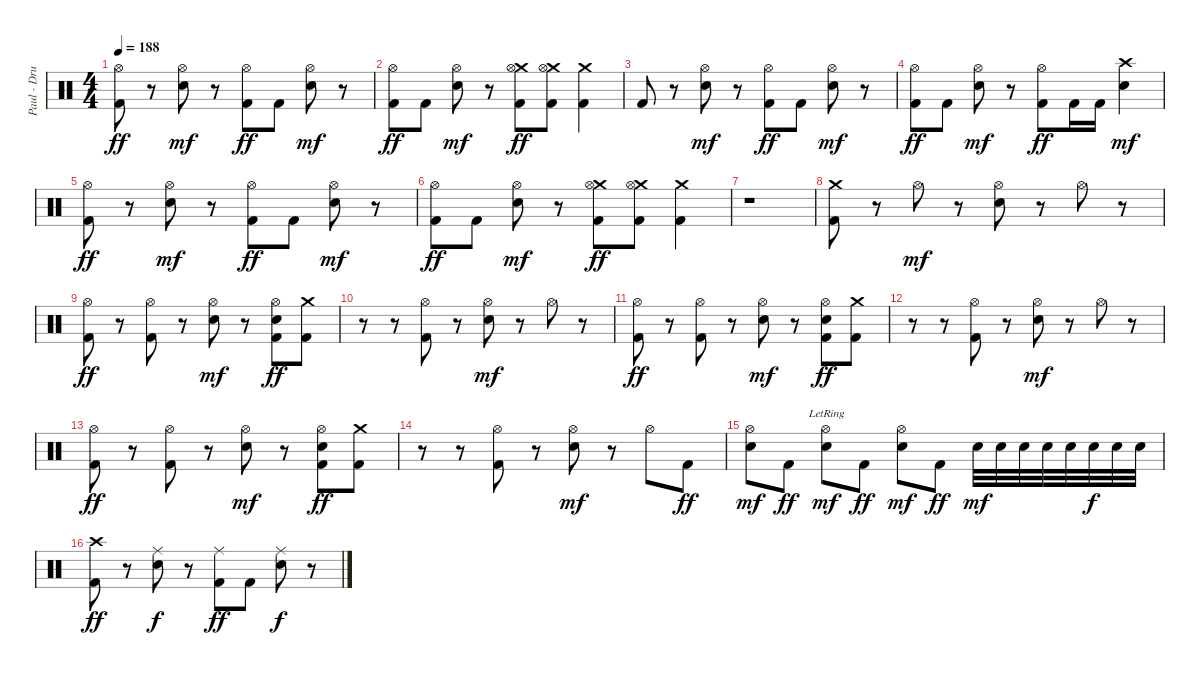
\track ("Paul - Drums" "Paul - Dru") {instrument percussion}
\staff {score}
\articulation defaults
\ts (4 4)
\tempo 188
\clef neutral
\ks c
("Hi-Hat (open)" "Kick (hit) 2").8{dy ff} r.8 ("Hi-Hat (open)" "Electric Snare (hit)").8{dy mf} r.8 ("Hi-Hat (open)" "Kick (hit) 2").8{dy ff} "Kick (hit) 2".8 ("Hi-Hat (open)" "Electric Snare (hit)").8{dy mf} r.8 |
("Hi-Hat (open)" "Kick (hit) 2").8{dy ff} "Kick (hit) 2".8 ("Hi-Hat (open)" "Electric Snare (hit)").8{dy mf} r.8 ("Crash medium (hit)" "Hi-Hat (open)" "Kick (hit) 2").8{dy ff} ("Crash medium (hit)" "Hi-Hat (open)" "Kick (hit) 2").8 ("Crash medium (hit)" "Kick (hit) 2").4 |
"Kick (hit) 2".8 r.8 ("Hi-Hat (open)" "Electric Snare (hit)").8{dy mf} r.8 ("Hi-Hat (open)" "Kick (hit) 2").8{dy ff} "Kick (hit) 2".8 ("Hi-Hat (open)" "Electric Snare (hit)").8{dy mf} r.8 |
("Hi-Hat (open)" "Kick (hit) 2").8{dy ff} "Kick (hit) 2".8 ("Hi-Hat (open)" "Electric Snare (hit)").8{dy mf} r.8 ("Hi-Hat (open)" "Kick (hit) 2").8{dy ff} "Kick (hit) 2".16 "Kick (hit) 2".16 ("Crash high (hit)" "Electric Snare (hit)").4{dy mf} |
("Hi-Hat (open)" "Kick (hit) 2").8{dy ff} r.8 ("Hi-Hat (open)" "Electric Snare (hit)").8{dy mf} r.8 ("Hi-Hat (open)" "Kick (hit) 2").8{dy ff} "Kick (hit) 2".8 ("Hi-Hat (open)" "Electric Snare (hit)").8{dy mf} r.8 |
("Hi-Hat (open)" "Kick (hit) 2").8{dy ff} "Kick (hit) 2".8 ("Hi-Hat (open)" "Electric Snare (hit)").8{dy mf} r.8 ("Crash medium (hit)" "Hi-Hat (open)" "Kick (hit) 2").8{dy ff} ("Crash medium (hit)" "Hi-Hat (open)" "Kick (hit) 2").8 ("Crash medium (hit)" "Kick (hit) 2").4 |
r.1 |
("Crash medium (hit)" "Kick (hit) 2").8 r.8 "Hi-Hat (open)".8{dy mf} r.8 ("Hi-Hat (open)" "Electric Snare (hit)").8 r.8 "Hi-Hat (open)".8 r.8 |
("Hi-Hat (open)" "Kick (hit) 2").8{dy ff} r.8 ("Hi-Hat (open)" "Kick (hit) 2").8 r.8 ("Hi-Hat (open)" "Electric Snare (hit)").8{dy mf} r.8 ("Hi-Hat (open)" "Electric Snare (hit)" "Kick (hit) 2").8{dy ff} ("Crash medium (hit)" "Kick (hit) 2").8 |
r.8 r.8 ("Hi-Hat (open)" "Kick (hit) 2").8 r.8 ("Hi-Hat (open)" "Electric Snare (hit)").8{dy mf} r.8 "Hi-Hat (open)".8 r.8 |
("Hi-Hat (open)" "Kick (hit) 2").8{dy ff} r.8 ("Hi-Hat (open)" "Kick (hit) 2").8 r.8 ("Hi-Hat (open)" "Electric Snare (hit)").8{dy mf} r.8 ("Hi-Hat (open)" "Electric Snare (hit)" "Kick (hit) 2").8{dy ff} ("Crash medium (hit)" "Kick (hit) 2").8 |
r.8 r.8 ("Hi-Hat (open)" "Kick (hit) 2").8 r.8 ("Hi-Hat (open)" "Electric Snare (hit)").8{dy mf} r.8 "Hi-Hat (open)".8 r.8 |
("Hi-Hat (open)" "Kick (hit) 2").8{dy ff} r.8 ("Hi-Hat (open)" "Kick (hit) 2").8 r.8 ("Hi-Hat (open)" "Electric Snare (hit)").8{dy mf} r.8 ("Hi-Hat (open)" "Electric Snare (hit)" "Kick (hit) 2").8{dy ff} ("Crash medium (hit)" "Kick (hit) 2").8 |
r.8 r.8 ("Hi-Hat (open)" "Kick (hit) 2").8 r.8 ("Hi-Hat (open)" "Electric Snare (hit)").8{dy mf} r.8 "Hi-Hat (open)".8 "Kick (hit) 2".8{dy ff} |
("Hi-Hat (open)" "Electric Snare (hit)").8{dy mf} "Kick (hit) 2".8{dy ff} ("Hi-Hat (open)"{lr} "Electric Snare (hit)").8{dy mf} "Kick (hit) 2".8{dy ff} ("Hi-Hat (open)" "Electric Snare (hit)").8{dy mf} "Kick (hit) 2".8{dy ff} "Electric Snare (hit)".32{dy mf} "Electric Snare (hit)".32 "Electric Snare (hit)".32 "Electric Snare (hit)".32 "Electric Snare (hit)".32 "Electric Snare (hit)".32{dy f} "Electric Snare (hit)".32 "Electric Snare (hit)".32 |
("Crash high (hit)" "Kick (hit) 2").8{dy ff} r.8 ("Ride (middle)" "Electric Snare (hit)").8{dy f} r.8 ("Ride (middle)" "Kick (hit) 2").8{dy ff} "Kick (hit) 2".8 ("Ride (middle)" "Electric Snare (hit)").8{dy f} r.8
